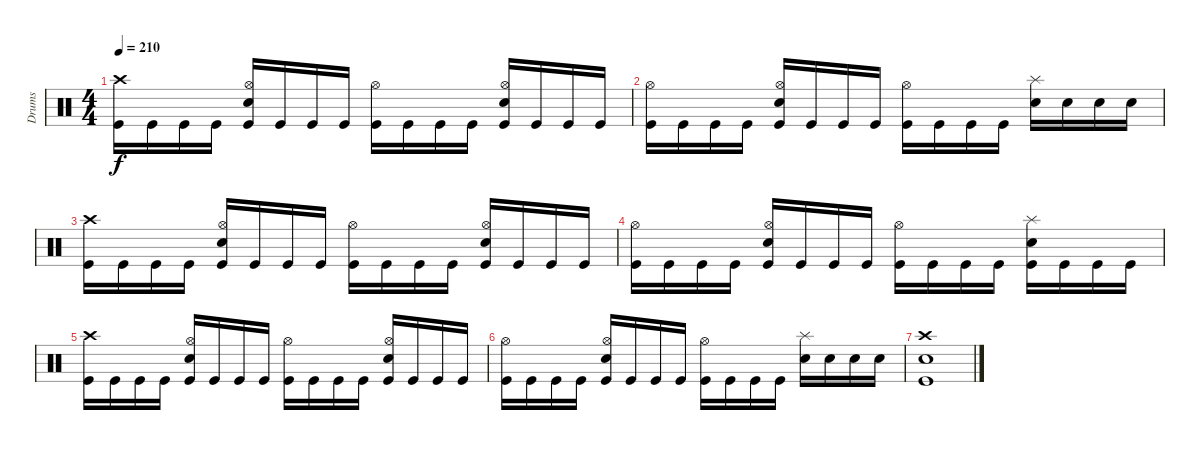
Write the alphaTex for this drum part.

\track ("Drums" "Drums") {instrument percussion}
\staff {score}
\articulation defaults
\ts (4 4)
\tempo 210
\clef neutral
\ks c
("Crash high (hit)" "Kick (hit)").16{dy f} "Kick (hit)".16 "Kick (hit)".16 "Kick (hit)".16 ("Hi-Hat (open)" "Snare (hit) 2" "Kick (hit)").16 "Kick (hit)".16 "Kick (hit)".16 "Kick (hit)".16 ("Hi-Hat (open)" "Kick (hit)").16 "Kick (hit)".16 "Kick (hit)".16 "Kick (hit)".16 ("Hi-Hat (open)" "Snare (hit) 2" "Kick (hit)").16 "Kick (hit)".16 "Kick (hit)".16 "Kick (hit)".16 |
("Hi-Hat (open)" "Kick (hit)").16 "Kick (hit)".16 "Kick (hit)".16 "Kick (hit)".16 ("Hi-Hat (open)" "Snare (hit) 2" "Kick (hit)").16 "Kick (hit)".16 "Kick (hit)".16 "Kick (hit)".16 ("Hi-Hat (open)" "Kick (hit)").16 "Kick (hit)".16 "Kick (hit)".16 "Kick (hit)".16 ("Splash (hit)" "Snare (hit) 2").16 "Snare (hit) 2".16 "Snare (hit) 2".16 "Snare (hit) 2".16 |
("Crash high (hit)" "Kick (hit)").16 "Kick (hit)".16 "Kick (hit)".16 "Kick (hit)".16 ("Hi-Hat (open)" "Snare (hit) 2" "Kick (hit)").16 "Kick (hit)".16 "Kick (hit)".16 "Kick (hit)".16 ("Hi-Hat (open)" "Kick (hit)").16 "Kick (hit)".16 "Kick (hit)".16 "Kick (hit)".16 ("Hi-Hat (open)" "Snare (hit) 2" "Kick (hit)").16 "Kick (hit)".16 "Kick (hit)".16 "Kick (hit)".16 |
("Hi-Hat (open)" "Kick (hit)").16 "Kick (hit)".16 "Kick (hit)".16 "Kick (hit)".16 ("Hi-Hat (open)" "Snare (hit) 2" "Kick (hit)").16 "Kick (hit)".16 "Kick (hit)".16 "Kick (hit)".16 ("Hi-Hat (open)" "Kick (hit)").16 "Kick (hit)".16 "Kick (hit)".16 "Kick (hit)".16 ("Splash (hit)" "Snare (hit) 2" "Kick (hit)").16 "Kick (hit)".16 "Kick (hit)".16 "Kick (hit)".16 |
("Crash high (hit)" "Kick (hit)").16 "Kick (hit)".16 "Kick (hit)".16 "Kick (hit)".16 ("Hi-Hat (open)" "Snare (hit) 2" "Kick (hit)").16 "Kick (hit)".16 "Kick (hit)".16 "Kick (hit)".16 ("Hi-Hat (open)" "Kick (hit)").16 "Kick (hit)".16 "Kick (hit)".16 "Kick (hit)".16 ("Hi-Hat (open)" "Snare (hit) 2" "Kick (hit)").16 "Kick (hit)".16 "Kick (hit)".16 "Kick (hit)".16 |
("Hi-Hat (open)" "Kick (hit)").16 "Kick (hit)".16 "Kick (hit)".16 "Kick (hit)".16 ("Hi-Hat (open)" "Snare (hit) 2" "Kick (hit)").16 "Kick (hit)".16 "Kick (hit)".16 "Kick (hit)".16 ("Hi-Hat (open)" "Kick (hit)").16 "Kick (hit)".16 "Kick (hit)".16 "Kick (hit)".16 ("Splash (hit)" "Snare (hit) 2").16 "Snare (hit) 2".16 "Snare (hit) 2".16 "Snare (hit) 2".16 |
("Crash high (hit)" "Snare (hit) 2" "Kick (hit)").1
